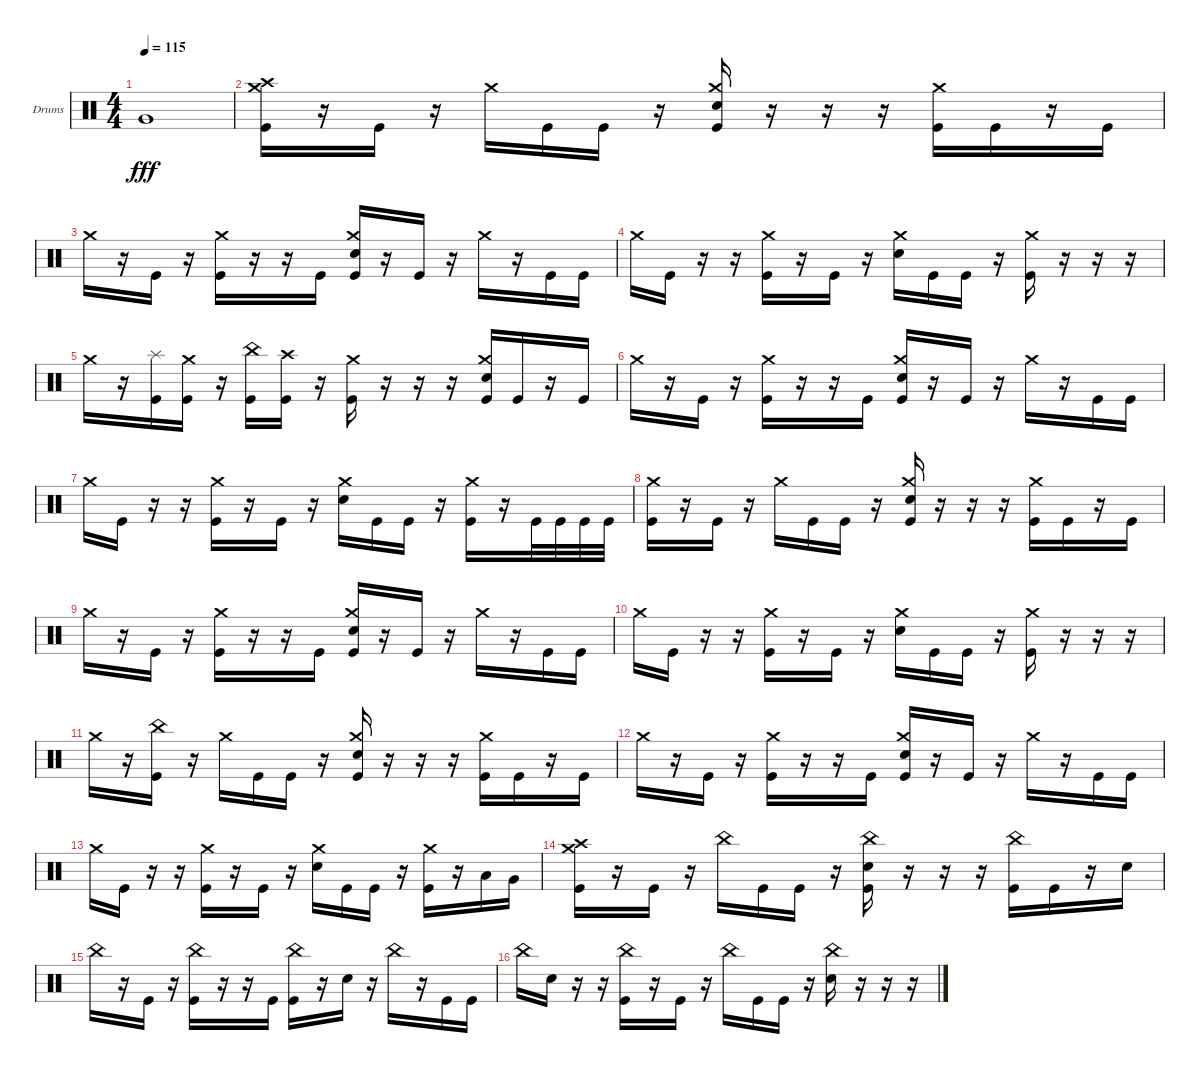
\bracketExtendMode groupsimilarinstruments
\firstSystemTrackNameOrientation horizontal
\otherSystemsTrackNameOrientation horizontal
\track ("Drumkit" "Drums") {instrument percussion}
\staff {score}
\articulation defaults
\ts (4 4)
\tempo 115
\clef neutral
\ks c "Very Low Tom (hit)".1{dy fff}
|
("Kick (hit)" "Crash medium (hit)" "Crash high (hit)").16 r.16 "Kick (hit)".16 r.16 "Crash medium (hit)".16 "Kick (hit)".16 "Kick (hit)".16 r.16 ("Kick (hit)" "Snare (hit) 2" "Crash medium (hit)").16 r.16 r.16 r.16 ("Kick (hit)" "Crash medium (hit)").16 "Kick (hit)".16 r.16 "Kick (hit)".16 |
"Crash medium (hit)".16 r.16 "Kick (hit)".16 r.16 ("Kick (hit)" "Crash medium (hit)").16 r.16 r.16 "Kick (hit)".16 ("Kick (hit)" "Snare (hit) 2" "Crash medium (hit)").16 r.16 "Kick (hit)".16 r.16 "Crash medium (hit)".16 r.16 "Kick (hit)".16 "Kick (hit)".16 |
"Crash medium (hit)".16 "Kick (hit)".16 r.16 r.16 ("Kick (hit)" "Crash medium (hit)").16 r.16 "Kick (hit)".16 r.16 ("Snare (hit) 2" "Crash medium (hit)").16 "Kick (hit)".16 "Kick (hit)".16 r.16 ("Kick (hit)" "Crash medium (hit)").16 r.16 r.16 r.16 |
"Crash medium (hit)".16 r.16 ("Kick (hit)" "Splash (hit)").16 ("Kick (hit)" "Crash medium (hit)").16 r.16 ("Kick (hit)" "China (hit)").16 ("Kick (hit)" "Crash high (hit)").16 r.16 ("Kick (hit)" "Crash medium (hit)").16 r.16 r.16 r.16 ("Kick (hit)" "Snare (hit) 2" "Crash medium (hit)").16 "Kick (hit)".16 r.16 "Kick (hit)".16 |
"Crash medium (hit)".16 r.16 "Kick (hit)".16 r.16 ("Kick (hit)" "Crash medium (hit)").16 r.16 r.16 "Kick (hit)".16 ("Kick (hit)" "Snare (hit) 2" "Crash medium (hit)").16 r.16 "Kick (hit)".16 r.16 "Crash medium (hit)".16 r.16 "Kick (hit)".16 "Kick (hit)".16 |
"Crash medium (hit)".16 "Kick (hit)".16 r.16 r.16 ("Kick (hit)" "Crash medium (hit)").16 r.16 "Kick (hit)".16 r.16 ("Snare (hit) 2" "Crash medium (hit)").16 "Kick (hit)".16 "Kick (hit)".16 r.16 ("Kick (hit)" "Crash medium (hit)").16 r.16 "Kick (hit)".32 "Kick (hit)".32 "Kick (hit)".32 "Kick (hit)".32 |
("Kick (hit)" "Crash medium (hit)").16 r.16 "Kick (hit)".16 r.16 "Crash medium (hit)".16 "Kick (hit)".16 "Kick (hit)".16 r.16 ("Kick (hit)" "Crash medium (hit)" "Snare (hit) 2").16 r.16 r.16 r.16 ("Kick (hit)" "Crash medium (hit)").16 "Kick (hit)".16 r.16 "Kick (hit)".16 |
"Crash medium (hit)".16 r.16 "Kick (hit)".16 r.16 ("Kick (hit)" "Crash medium (hit)").16 r.16 r.16 "Kick (hit)".16 ("Kick (hit)" "Snare (hit) 2" "Crash medium (hit)").16 r.16 "Kick (hit)".16 r.16 "Crash medium (hit)".16 r.16 "Kick (hit)".16 "Kick (hit)".16 |
"Crash medium (hit)".16 "Kick (hit)".16 r.16 r.16 ("Kick (hit)" "Crash medium (hit)").16 r.16 "Kick (hit)".16 r.16 ("Snare (hit) 2" "Crash medium (hit)").16 "Kick (hit)".16 "Kick (hit)".16 r.16 ("Kick (hit)" "Crash medium (hit)").16 r.16 r.16 r.16 |
"Crash medium (hit)".16 r.16 ("Kick (hit)" "China (hit)").16 r.16 "Crash medium (hit)".16 "Kick (hit)".16 "Kick (hit)".16 r.16 ("Kick (hit)" "Crash medium (hit)" "Snare (hit) 2").16 r.16 r.16 r.16 ("Kick (hit)" "Crash medium (hit)").16 "Kick (hit)".16 r.16 "Kick (hit)".16 |
"Crash medium (hit)".16 r.16 "Kick (hit)".16 r.16 ("Kick (hit)" "Crash medium (hit)").16 r.16 r.16 "Kick (hit)".16 ("Kick (hit)" "Snare (hit) 2" "Crash medium (hit)").16 r.16 "Kick (hit)".16 r.16 "Crash medium (hit)".16 r.16 "Kick (hit)".16 "Kick (hit)".16 |
"Crash medium (hit)".16 "Kick (hit)".16 r.16 r.16 ("Kick (hit)" "Crash medium (hit)").16 r.16 "Kick (hit)".16 r.16 ("Snare (hit) 2" "Crash medium (hit)").16 "Kick (hit)".16 "Kick (hit)".16 r.16 ("Kick (hit)" "Crash medium (hit)").16 r.16 "Low Tom (hit)".16 "Very Low Tom (hit)".16 |
("Kick (hit)" "Crash medium (hit)" "Crash high (hit)").16 r.16 "Kick (hit)".16 r.16 "China (hit)".16 "Kick (hit)".16 "Kick (hit)".16 r.16 ("Kick (hit)" "China (hit)" "Snare (hit) 2").16 r.16 r.16 r.16 ("Kick (hit)" "China (hit)").16 "Kick (hit)".16 r.16 "Snare (hit) 2".16 |
"China (hit)".16 r.16 "Kick (hit)".16 r.16 ("Kick (hit)" "China (hit)").16 r.16 r.16 "Kick (hit)".16 ("Kick (hit)" "China (hit)").16 r.16 "Snare (hit) 2".16 r.16 "China (hit)".16 r.16 "Kick (hit)".16 "Kick (hit)".16 |
"China (hit)".16 "Snare (hit) 2".16 r.16 r.16 ("Kick (hit)" "China (hit)").16 r.16 "Kick (hit)".16 r.16 "China (hit)".16 "Kick (hit)".16 "Kick (hit)".16 r.16 ("China (hit)" "Snare (hit) 2").16 r.16 r.16 r.16
